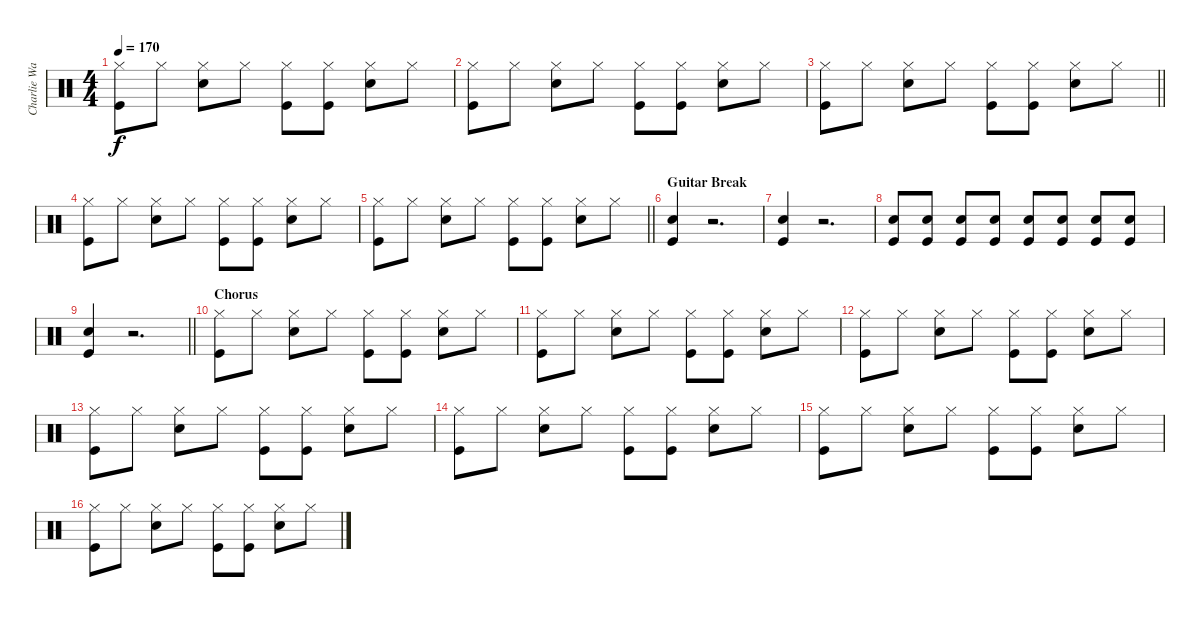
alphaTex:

\track ("Charlie Watts" "Charlie Wa") {instrument percussion}
\staff {score}
\articulation defaults
\ts (4 4)
\tempo 170
\clef neutral
\ks c
("Hi-Hat (closed)" "Kick (hit)").8{dy f} "Hi-Hat (closed)".8 ("Hi-Hat (closed)" "Snare (hit) 2").8 "Hi-Hat (closed)".8 ("Hi-Hat (closed)" "Kick (hit)").8 ("Hi-Hat (closed)" "Kick (hit)").8 ("Hi-Hat (closed)" "Snare (hit) 2").8 "Hi-Hat (closed)".8 |
("Hi-Hat (closed)" "Kick (hit)").8 "Hi-Hat (closed)".8 ("Hi-Hat (closed)" "Snare (hit) 2").8 "Hi-Hat (closed)".8 ("Hi-Hat (closed)" "Kick (hit)").8 ("Hi-Hat (closed)" "Kick (hit)").8 ("Hi-Hat (closed)" "Snare (hit) 2").8 "Hi-Hat (closed)".8 |
\barLineRight lightlight
("Hi-Hat (closed)" "Kick (hit)").8 "Hi-Hat (closed)".8 ("Hi-Hat (closed)" "Snare (hit) 2").8 "Hi-Hat (closed)".8 ("Hi-Hat (closed)" "Kick (hit)").8 ("Hi-Hat (closed)" "Kick (hit)").8 ("Hi-Hat (closed)" "Snare (hit) 2").8 "Hi-Hat (closed)".8 |
("Hi-Hat (closed)" "Kick (hit)").8 "Hi-Hat (closed)".8 ("Hi-Hat (closed)" "Snare (hit) 2").8 "Hi-Hat (closed)".8 ("Hi-Hat (closed)" "Kick (hit)").8 ("Hi-Hat (closed)" "Kick (hit)").8 ("Hi-Hat (closed)" "Snare (hit) 2").8 "Hi-Hat (closed)".8 |
\barLineRight lightlight
("Hi-Hat (closed)" "Kick (hit)").8 "Hi-Hat (closed)".8 ("Hi-Hat (closed)" "Snare (hit) 2").8 "Hi-Hat (closed)".8 ("Hi-Hat (closed)" "Kick (hit)").8 ("Hi-Hat (closed)" "Kick (hit)").8 ("Hi-Hat (closed)" "Snare (hit) 2").8 "Hi-Hat (closed)".8 |
\section ("" "Guitar Break")
("Snare (hit) 2" "Kick (hit)").4 r.2{d} |
("Snare (hit) 2" "Kick (hit)").4 r.2{d} |
("Snare (hit) 2" "Kick (hit)").8 ("Snare (hit) 2" "Kick (hit)").8 ("Snare (hit) 2" "Kick (hit)").8 ("Snare (hit) 2" "Kick (hit)").8 ("Snare (hit) 2" "Kick (hit)").8 ("Snare (hit) 2" "Kick (hit)").8 ("Snare (hit) 2" "Kick (hit)").8 ("Snare (hit) 2" "Kick (hit)").8 |
\barLineRight lightlight
("Snare (hit) 2" "Kick (hit)").4 r.2{d} |
\section ("" "Chorus")
("Hi-Hat (closed)" "Kick (hit)").8 "Hi-Hat (closed)".8 ("Hi-Hat (closed)" "Snare (hit) 2").8 "Hi-Hat (closed)".8 ("Hi-Hat (closed)" "Kick (hit)").8 ("Hi-Hat (closed)" "Kick (hit)").8 ("Hi-Hat (closed)" "Snare (hit) 2").8 "Hi-Hat (closed)".8 |
("Hi-Hat (closed)" "Kick (hit)").8 "Hi-Hat (closed)".8 ("Hi-Hat (closed)" "Snare (hit) 2").8 "Hi-Hat (closed)".8 ("Hi-Hat (closed)" "Kick (hit)").8 ("Hi-Hat (closed)" "Kick (hit)").8 ("Hi-Hat (closed)" "Snare (hit) 2").8 "Hi-Hat (closed)".8 |
("Hi-Hat (closed)" "Kick (hit)").8 "Hi-Hat (closed)".8 ("Hi-Hat (closed)" "Snare (hit) 2").8 "Hi-Hat (closed)".8 ("Hi-Hat (closed)" "Kick (hit)").8 ("Hi-Hat (closed)" "Kick (hit)").8 ("Hi-Hat (closed)" "Snare (hit) 2").8 "Hi-Hat (closed)".8 |
("Hi-Hat (closed)" "Kick (hit)").8 "Hi-Hat (closed)".8 ("Hi-Hat (closed)" "Snare (hit) 2").8 "Hi-Hat (closed)".8 ("Hi-Hat (closed)" "Kick (hit)").8 ("Hi-Hat (closed)" "Kick (hit)").8 ("Hi-Hat (closed)" "Snare (hit) 2").8 "Hi-Hat (closed)".8 |
("Hi-Hat (closed)" "Kick (hit)").8 "Hi-Hat (closed)".8 ("Hi-Hat (closed)" "Snare (hit) 2").8 "Hi-Hat (closed)".8 ("Hi-Hat (closed)" "Kick (hit)").8 ("Hi-Hat (closed)" "Kick (hit)").8 ("Hi-Hat (closed)" "Snare (hit) 2").8 "Hi-Hat (closed)".8 |
("Hi-Hat (closed)" "Kick (hit)").8 "Hi-Hat (closed)".8 ("Hi-Hat (closed)" "Snare (hit) 2").8 "Hi-Hat (closed)".8 ("Hi-Hat (closed)" "Kick (hit)").8 ("Hi-Hat (closed)" "Kick (hit)").8 ("Hi-Hat (closed)" "Snare (hit) 2").8 "Hi-Hat (closed)".8 |
("Hi-Hat (closed)" "Kick (hit)").8 "Hi-Hat (closed)".8 ("Hi-Hat (closed)" "Snare (hit) 2").8 "Hi-Hat (closed)".8 ("Hi-Hat (closed)" "Kick (hit)").8 ("Hi-Hat (closed)" "Kick (hit)").8 ("Hi-Hat (closed)" "Snare (hit) 2").8 "Hi-Hat (closed)".8
